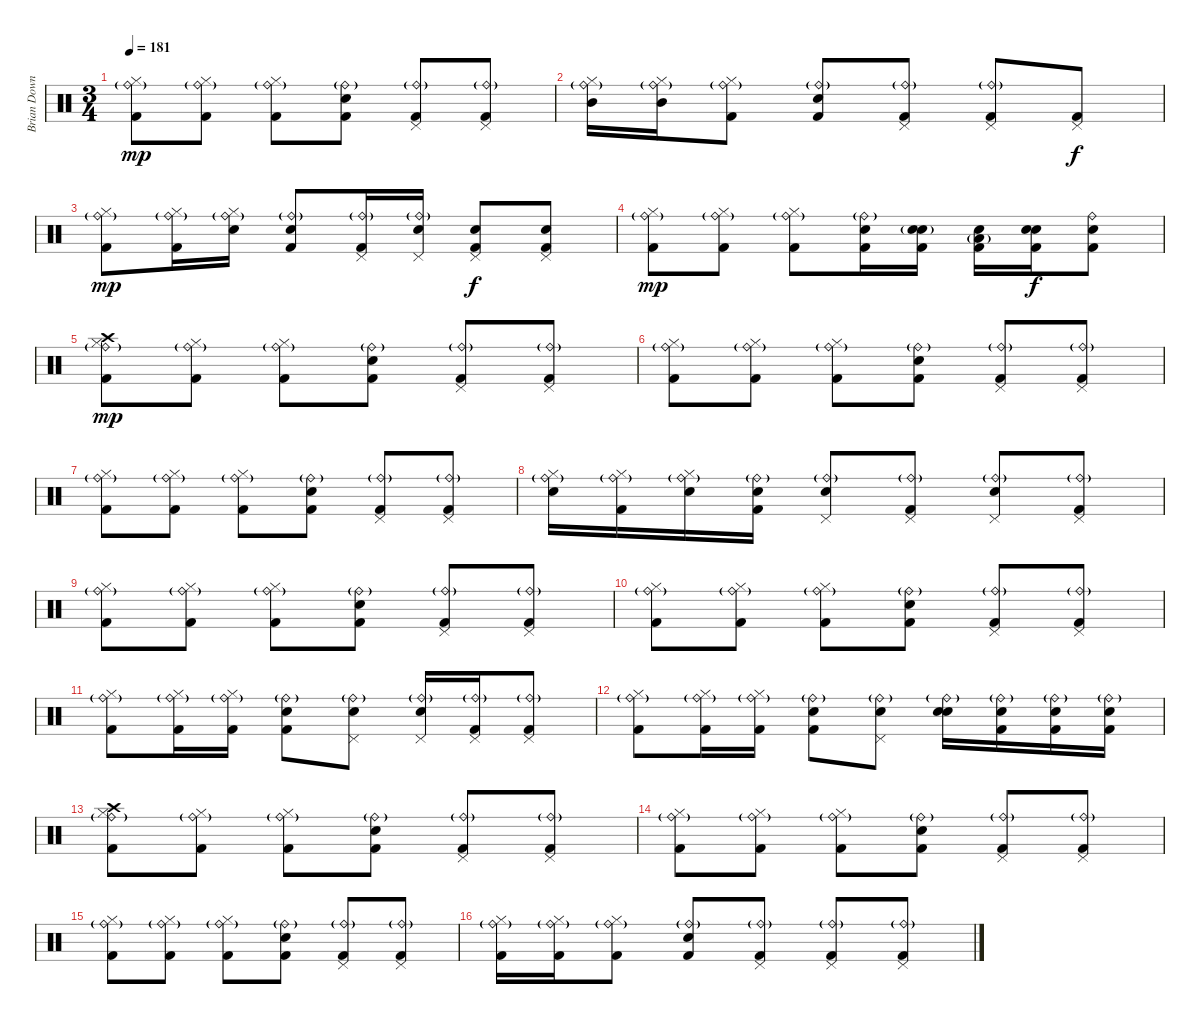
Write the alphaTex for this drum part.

\track ("Brian Downey" "Brian Down") {instrument percussion}
\staff {score}
\articulation defaults
\ts (3 4)
\tempo 181
\clef neutral
\ks c
("Ride (bell)"{g} "Hi-Hat (closed)" "Kick (hit) 2").8{dy mp} ("Ride (bell)"{g} "Hi-Hat (closed)" "Kick (hit) 2").8 ("Ride (bell)"{g} "Hi-Hat (closed)" "Kick (hit) 2").8 ("Ride (bell)"{g} "Snare (hit) 2" "Kick (hit) 2").8 ("Ride (bell)"{g} "Pedal Hi-Hat (hit)" "Kick (hit) 2").8 ("Ride (bell)"{g} "Pedal Hi-Hat (hit)" "Kick (hit) 2").8 |
("Ride (bell)"{g} "Hi-Hat (closed)" "Mid Tom (hit)").16 ("Ride (bell)"{g} "Hi-Hat (closed)" "Mid Tom (hit)").16 ("Ride (bell)"{g} "Hi-Hat (closed)" "Kick (hit) 2").8 ("Ride (bell)"{g} "Snare (hit) 2" "Kick (hit) 2").8 ("Ride (bell)"{g} "Pedal Hi-Hat (hit)" "Kick (hit) 2").8 ("Ride (bell)"{g} "Pedal Hi-Hat (hit)" "Kick (hit) 2").8 ("Pedal Hi-Hat (hit)" "Kick (hit) 2").8{dy f} |
("Ride (bell)"{g} "Hi-Hat (closed)" "Kick (hit) 2").8{dy mp} ("Ride (bell)"{g} "Hi-Hat (closed)" "Kick (hit) 2").16 ("Ride (bell)"{g} "Hi-Hat (closed)" "Electric Snare (hit)").16 ("Ride (bell)"{g} "Snare (hit) 2" "Kick (hit) 2").8 ("Ride (bell)"{g} "Pedal Hi-Hat (hit)" "Kick (hit) 2").16 ("Ride (bell)"{g} "Pedal Hi-Hat (hit)" "Electric Snare (hit)").16 ("Electric Snare (hit)" "Pedal Hi-Hat (hit)" "Kick (hit) 2").8{dy f} ("Electric Snare (hit)" "Pedal Hi-Hat (hit)" "Kick (hit) 2").8 |
("Ride (bell)"{g} "Hi-Hat (closed)" "Kick (hit) 2").8{dy mp} ("Ride (bell)"{g} "Hi-Hat (closed)" "Kick (hit) 2").8 ("Ride (bell)"{g} "Hi-Hat (closed)" "Kick (hit) 2").8 ("Ride (bell)"{g} "Snare (hit) 2" "Kick (hit) 2").16 ("Electric Snare (hit)"{g} "Snare (hit) 2" "Kick (hit) 2").16 ("Low Tom (hit)"{g} "Snare (hit) 2" "Kick (hit) 2").16 ("Snare (hit) 2" "Snare (hit) 2" "Kick (hit) 2").16{dy f} ("Ride (bell)" "Electric Snare (hit)" "Kick (hit) 2").8 |
("Crash high (hit)" "Ride (bell)"{g} "Hi-Hat (closed)" "Kick (hit) 2").8{dy mp} ("Ride (bell)"{g} "Hi-Hat (closed)" "Kick (hit) 2").8 ("Ride (bell)"{g} "Hi-Hat (closed)" "Kick (hit) 2").8 ("Ride (bell)"{g} "Snare (hit) 2" "Kick (hit) 2").8 ("Ride (bell)"{g} "Pedal Hi-Hat (hit)" "Kick (hit) 2").8 ("Ride (bell)"{g} "Pedal Hi-Hat (hit)" "Kick (hit) 2").8 |
("Ride (bell)"{g} "Hi-Hat (closed)" "Kick (hit) 2").8 ("Ride (bell)"{g} "Hi-Hat (closed)" "Kick (hit) 2").8 ("Ride (bell)"{g} "Hi-Hat (closed)" "Kick (hit) 2").8 ("Ride (bell)"{g} "Snare (hit) 2" "Kick (hit) 2").8 ("Ride (bell)"{g} "Pedal Hi-Hat (hit)" "Kick (hit) 2").8 ("Ride (bell)"{g} "Pedal Hi-Hat (hit)" "Kick (hit) 2").8 |
("Ride (bell)"{g} "Hi-Hat (closed)" "Kick (hit) 2").8 ("Ride (bell)"{g} "Hi-Hat (closed)" "Kick (hit) 2").8 ("Ride (bell)"{g} "Hi-Hat (closed)" "Kick (hit) 2").8 ("Ride (bell)"{g} "Snare (hit) 2" "Kick (hit) 2").8 ("Ride (bell)"{g} "Pedal Hi-Hat (hit)" "Kick (hit) 2").8 ("Ride (bell)"{g} "Pedal Hi-Hat (hit)" "Kick (hit) 2").8 |
("Ride (bell)"{g} "Hi-Hat (closed)" "Snare (hit) 2").16 ("Ride (bell)"{g} "Hi-Hat (closed)" "Kick (hit) 2").16 ("Ride (bell)"{g} "Hi-Hat (closed)" "Snare (hit) 2").16 ("Ride (bell)"{g} "Snare (hit) 2" "Kick (hit) 2").16 ("Ride (bell)"{g} "Pedal Hi-Hat (hit)" "Snare (hit) 2").8 ("Ride (bell)"{g} "Pedal Hi-Hat (hit)" "Kick (hit) 2").8 ("Ride (bell)"{g} "Pedal Hi-Hat (hit)" "Snare (hit) 2").8 ("Ride (bell)"{g} "Pedal Hi-Hat (hit)" "Kick (hit) 2").8 |
("Ride (bell)"{g} "Hi-Hat (closed)" "Kick (hit) 2").8 ("Ride (bell)"{g} "Hi-Hat (closed)" "Kick (hit) 2").8 ("Ride (bell)"{g} "Hi-Hat (closed)" "Kick (hit) 2").8 ("Ride (bell)"{g} "Snare (hit) 2" "Kick (hit) 2").8 ("Ride (bell)"{g} "Pedal Hi-Hat (hit)" "Kick (hit) 2").8 ("Ride (bell)"{g} "Pedal Hi-Hat (hit)" "Kick (hit) 2").8 |
("Ride (bell)"{g} "Hi-Hat (closed)" "Kick (hit) 2").8 ("Ride (bell)"{g} "Hi-Hat (closed)" "Kick (hit) 2").8 ("Ride (bell)"{g} "Hi-Hat (closed)" "Kick (hit) 2").8 ("Ride (bell)"{g} "Snare (hit) 2" "Kick (hit) 2").8 ("Ride (bell)"{g} "Pedal Hi-Hat (hit)" "Kick (hit) 2").8 ("Ride (bell)"{g} "Pedal Hi-Hat (hit)" "Kick (hit) 2").8 |
("Ride (bell)"{g} "Hi-Hat (closed)" "Kick (hit) 2").8 ("Ride (bell)"{g} "Hi-Hat (closed)" "Kick (hit) 2").16 ("Ride (bell)"{g} "Hi-Hat (closed)" "Kick (hit) 2").16 ("Ride (bell)"{g} "Snare (hit) 2" "Kick (hit) 2").8 ("Ride (bell)"{g} "Pedal Hi-Hat (hit)" "Electric Snare (hit)").8 ("Ride (bell)"{g} "Pedal Hi-Hat (hit)" "Electric Snare (hit)").16 ("Ride (bell)"{g} "Pedal Hi-Hat (hit)" "Kick (hit) 2").16 ("Ride (bell)"{g} "Pedal Hi-Hat (hit)" "Kick (hit) 2").8 |
("Ride (bell)"{g} "Hi-Hat (closed)" "Kick (hit) 2").8 ("Ride (bell)"{g} "Hi-Hat (closed)" "Kick (hit) 2").16 ("Ride (bell)"{g} "Hi-Hat (closed)" "Kick (hit) 2").16 ("Ride (bell)"{g} "Snare (hit) 2" "Kick (hit) 2").8 ("Ride (bell)"{g} "Pedal Hi-Hat (hit)" "Electric Snare (hit)").8 ("Ride (bell)"{g} "Electric Snare (hit)" "Electric Snare (hit)").16 ("Ride (bell)"{g} "Electric Snare (hit)" "Kick (hit) 2").16 ("Ride (bell)"{g} "Snare (hit) 2" "Kick (hit) 2").16 ("Ride (bell)"{g} "Snare (hit) 2" "Kick (hit) 2").16 |
("Crash high (hit)" "Ride (bell)"{g} "Hi-Hat (closed)" "Kick (hit) 2").8 ("Ride (bell)"{g} "Hi-Hat (closed)" "Kick (hit) 2").8 ("Ride (bell)"{g} "Hi-Hat (closed)" "Kick (hit) 2").8 ("Ride (bell)"{g} "Snare (hit) 2" "Kick (hit) 2").8 ("Ride (bell)"{g} "Pedal Hi-Hat (hit)" "Kick (hit) 2").8 ("Ride (bell)"{g} "Pedal Hi-Hat (hit)" "Kick (hit) 2").8 |
("Ride (bell)"{g} "Hi-Hat (closed)" "Kick (hit) 2").8 ("Ride (bell)"{g} "Hi-Hat (closed)" "Kick (hit) 2").8 ("Ride (bell)"{g} "Hi-Hat (closed)" "Kick (hit) 2").8 ("Ride (bell)"{g} "Snare (hit) 2" "Kick (hit) 2").8 ("Ride (bell)"{g} "Pedal Hi-Hat (hit)" "Kick (hit) 2").8 ("Ride (bell)"{g} "Pedal Hi-Hat (hit)" "Kick (hit) 2").8 |
("Ride (bell)"{g} "Hi-Hat (closed)" "Kick (hit) 2").8 ("Ride (bell)"{g} "Hi-Hat (closed)" "Kick (hit) 2").8 ("Ride (bell)"{g} "Hi-Hat (closed)" "Kick (hit) 2").8 ("Ride (bell)"{g} "Snare (hit) 2" "Kick (hit) 2").8 ("Ride (bell)"{g} "Pedal Hi-Hat (hit)" "Kick (hit) 2").8 ("Ride (bell)"{g} "Pedal Hi-Hat (hit)" "Kick (hit) 2").8 |
("Ride (bell)"{g} "Hi-Hat (closed)" "Kick (hit) 2").16 ("Ride (bell)"{g} "Hi-Hat (closed)" "Kick (hit) 2").16 ("Ride (bell)"{g} "Hi-Hat (closed)" "Kick (hit) 2").8 ("Ride (bell)"{g} "Snare (hit) 2" "Kick (hit) 2").8 ("Ride (bell)"{g} "Pedal Hi-Hat (hit)" "Kick (hit) 2").8 ("Ride (bell)"{g} "Pedal Hi-Hat (hit)" "Kick (hit) 2").8 ("Ride (bell)"{g} "Pedal Hi-Hat (hit)" "Kick (hit) 2").8
